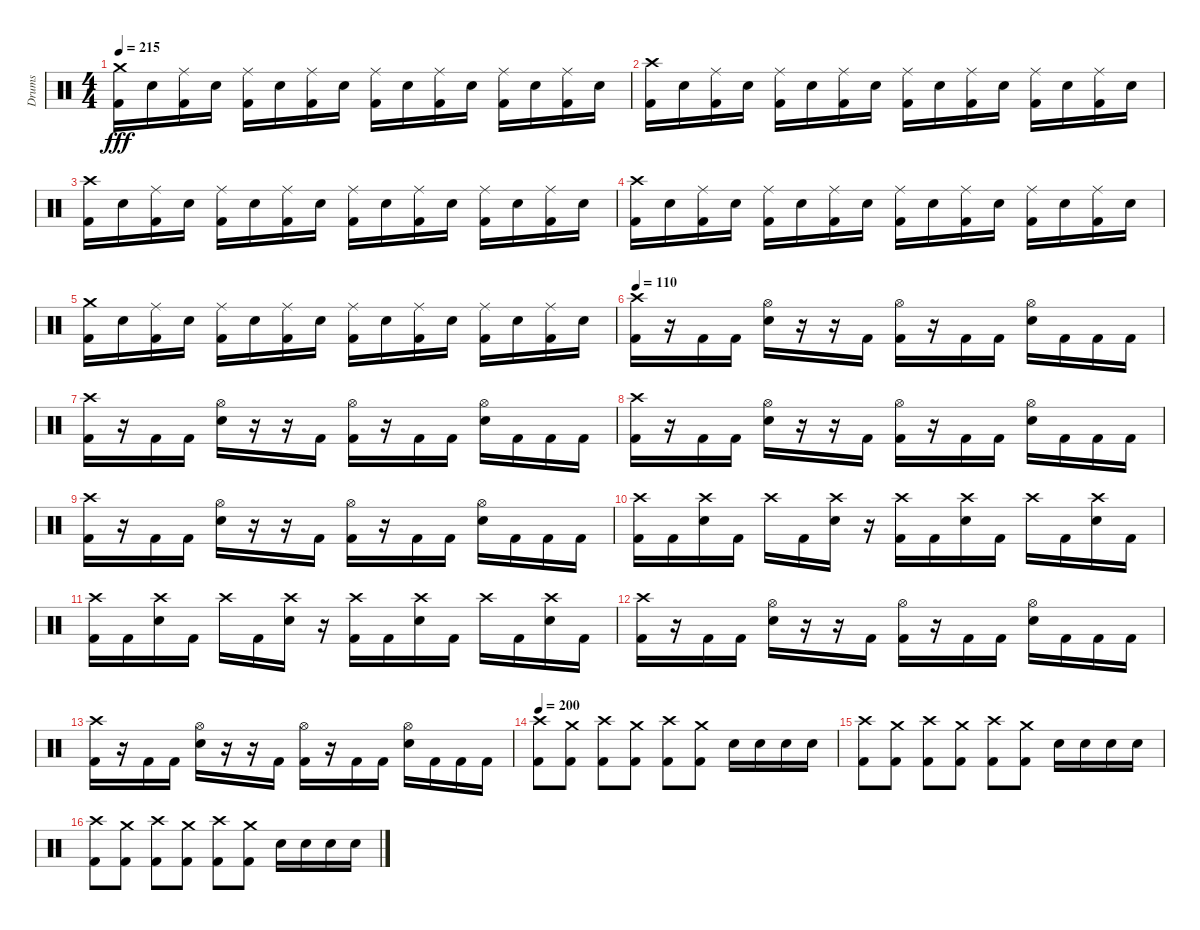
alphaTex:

\track ("Drums" "Drums") {instrument percussion}
\staff {score}
\articulation defaults
\ts (4 4)
\tempo 215
\clef neutral
\ks c
("Crash medium (hit)" "Kick (hit) 2").16{dy fff} "Electric Snare (hit)".16 ("Ride (middle)" "Kick (hit) 2").16 "Electric Snare (hit)".16 ("Ride (middle)" "Kick (hit) 2").16 "Electric Snare (hit)".16 ("Ride (middle)" "Kick (hit) 2").16 "Electric Snare (hit)".16 ("Ride (middle)" "Kick (hit) 2").16 "Electric Snare (hit)".16 ("Ride (middle)" "Kick (hit) 2").16 "Electric Snare (hit)".16 ("Ride (middle)" "Kick (hit) 2").16 "Electric Snare (hit)".16 ("Ride (middle)" "Kick (hit) 2").16 "Electric Snare (hit)".16 |
("Crash high (hit)" "Kick (hit) 2").16 "Electric Snare (hit)".16 ("Ride (middle)" "Kick (hit) 2").16 "Electric Snare (hit)".16 ("Ride (middle)" "Kick (hit) 2").16 "Electric Snare (hit)".16 ("Ride (middle)" "Kick (hit) 2").16 "Electric Snare (hit)".16 ("Ride (middle)" "Kick (hit) 2").16 "Electric Snare (hit)".16 ("Ride (middle)" "Kick (hit) 2").16 "Electric Snare (hit)".16 ("Ride (middle)" "Kick (hit) 2").16 "Electric Snare (hit)".16 ("Ride (middle)" "Kick (hit) 2").16 "Electric Snare (hit)".16 |
("Crash high (hit)" "Kick (hit) 2").16 "Electric Snare (hit)".16 ("Ride (middle)" "Kick (hit) 2").16 "Electric Snare (hit)".16 ("Ride (middle)" "Kick (hit) 2").16 "Electric Snare (hit)".16 ("Ride (middle)" "Kick (hit) 2").16 "Electric Snare (hit)".16 ("Ride (middle)" "Kick (hit) 2").16 "Electric Snare (hit)".16 ("Ride (middle)" "Kick (hit) 2").16 "Electric Snare (hit)".16 ("Ride (middle)" "Kick (hit) 2").16 "Electric Snare (hit)".16 ("Ride (middle)" "Kick (hit) 2").16 "Electric Snare (hit)".16 |
("Crash high (hit)" "Kick (hit) 2").16 "Electric Snare (hit)".16 ("Ride (middle)" "Kick (hit) 2").16 "Electric Snare (hit)".16 ("Ride (middle)" "Kick (hit) 2").16 "Electric Snare (hit)".16 ("Ride (middle)" "Kick (hit) 2").16 "Electric Snare (hit)".16 ("Ride (middle)" "Kick (hit) 2").16 "Electric Snare (hit)".16 ("Ride (middle)" "Kick (hit) 2").16 "Electric Snare (hit)".16 ("Ride (middle)" "Kick (hit) 2").16 "Electric Snare (hit)".16 ("Ride (middle)" "Kick (hit) 2").16 "Electric Snare (hit)".16 |
("Crash medium (hit)" "Kick (hit) 2").16 "Electric Snare (hit)".16 ("Ride (middle)" "Kick (hit) 2").16 "Electric Snare (hit)".16 ("Ride (middle)" "Kick (hit) 2").16 "Electric Snare (hit)".16 ("Ride (middle)" "Kick (hit) 2").16 "Electric Snare (hit)".16 ("Ride (middle)" "Kick (hit) 2").16 "Electric Snare (hit)".16 ("Ride (middle)" "Kick (hit) 2").16 "Electric Snare (hit)".16 ("Ride (middle)" "Kick (hit) 2").16 "Electric Snare (hit)".16 ("Ride (middle)" "Kick (hit) 2").16 "Electric Snare (hit)".16 |
\tempo 115
\tempo 110
("Crash high (hit)" "Kick (hit) 2").16 r.16 "Kick (hit) 2".16 "Kick (hit) 2".16 ("Hi-Hat (open)" "Electric Snare (hit)").16 r.16 r.16 "Kick (hit) 2".16 ("Hi-Hat (open)" "Kick (hit) 2").16 r.16 "Kick (hit) 2".16 "Kick (hit) 2".16 ("Hi-Hat (open)" "Electric Snare (hit)").16 "Kick (hit) 2".16 "Kick (hit) 2".16 "Kick (hit) 2".16 |
("Crash high (hit)" "Kick (hit) 2").16 r.16 "Kick (hit) 2".16 "Kick (hit) 2".16 ("Hi-Hat (open)" "Electric Snare (hit)").16 r.16 r.16 "Kick (hit) 2".16 ("Hi-Hat (open)" "Kick (hit) 2").16 r.16 "Kick (hit) 2".16 "Kick (hit) 2".16 ("Hi-Hat (open)" "Electric Snare (hit)").16 "Kick (hit) 2".16 "Kick (hit) 2".16 "Kick (hit) 2".16 |
("Crash high (hit)" "Kick (hit) 2").16 r.16 "Kick (hit) 2".16 "Kick (hit) 2".16 ("Hi-Hat (open)" "Electric Snare (hit)").16 r.16 r.16 "Kick (hit) 2".16 ("Hi-Hat (open)" "Kick (hit) 2").16 r.16 "Kick (hit) 2".16 "Kick (hit) 2".16 ("Hi-Hat (open)" "Electric Snare (hit)").16 "Kick (hit) 2".16 "Kick (hit) 2".16 "Kick (hit) 2".16 |
("Crash high (hit)" "Kick (hit) 2").16 r.16 "Kick (hit) 2".16 "Kick (hit) 2".16 ("Hi-Hat (open)" "Electric Snare (hit)").16 r.16 r.16 "Kick (hit) 2".16 ("Hi-Hat (open)" "Kick (hit) 2").16 r.16 "Kick (hit) 2".16 "Kick (hit) 2".16 ("Hi-Hat (open)" "Electric Snare (hit)").16 "Kick (hit) 2".16 "Kick (hit) 2".16 "Kick (hit) 2".16 |
("Crash high (hit)" "Kick (hit) 2").16 "Kick (hit) 2".16 ("Crash high (hit)" "Electric Snare (hit)").16 "Kick (hit) 2".16 "Crash high (hit)".16 "Kick (hit) 2".16 ("Crash high (hit)" "Electric Snare (hit)").16 r.16 ("Crash high (hit)" "Kick (hit) 2").16 "Kick (hit) 2".16 ("Crash high (hit)" "Electric Snare (hit)").16 "Kick (hit) 2".16 "Crash high (hit)".16 "Kick (hit) 2".16 ("Crash high (hit)" "Electric Snare (hit)").16 "Kick (hit) 2".16 |
("Crash high (hit)" "Kick (hit) 2").16 "Kick (hit) 2".16 ("Crash high (hit)" "Electric Snare (hit)").16 "Kick (hit) 2".16 "Crash high (hit)".16 "Kick (hit) 2".16 ("Crash high (hit)" "Electric Snare (hit)").16 r.16 ("Crash high (hit)" "Kick (hit) 2").16 "Kick (hit) 2".16 ("Crash high (hit)" "Electric Snare (hit)").16 "Kick (hit) 2".16 "Crash high (hit)".16 "Kick (hit) 2".16 ("Crash high (hit)" "Electric Snare (hit)").16 "Kick (hit) 2".16 |
("Crash high (hit)" "Kick (hit) 2").16 r.16 "Kick (hit) 2".16 "Kick (hit) 2".16 ("Hi-Hat (open)" "Electric Snare (hit)").16 r.16 r.16 "Kick (hit) 2".16 ("Hi-Hat (open)" "Kick (hit) 2").16 r.16 "Kick (hit) 2".16 "Kick (hit) 2".16 ("Hi-Hat (open)" "Electric Snare (hit)").16 "Kick (hit) 2".16 "Kick (hit) 2".16 "Kick (hit) 2".16 |
("Crash high (hit)" "Kick (hit) 2").16 r.16 "Kick (hit) 2".16 "Kick (hit) 2".16 ("Hi-Hat (open)" "Electric Snare (hit)").16 r.16 r.16 "Kick (hit) 2".16 ("Hi-Hat (open)" "Kick (hit) 2").16 r.16 "Kick (hit) 2".16 "Kick (hit) 2".16 ("Hi-Hat (open)" "Electric Snare (hit)").16 "Kick (hit) 2".16 "Kick (hit) 2".16 "Kick (hit) 2".16 |
\tempo 210
\tempo 200
("Crash high (hit)" "Kick (hit) 2").8 ("Crash medium (hit)" "Kick (hit) 2").8 ("Crash high (hit)" "Kick (hit) 2").8 ("Crash medium (hit)" "Kick (hit) 2").8 ("Crash high (hit)" "Kick (hit) 2").8 ("Crash medium (hit)" "Kick (hit) 2").8 "Electric Snare (hit)".16 "Electric Snare (hit)".16 "Electric Snare (hit)".16 "Electric Snare (hit)".16 |
("Crash high (hit)" "Kick (hit) 2").8 ("Crash medium (hit)" "Kick (hit) 2").8 ("Crash high (hit)" "Kick (hit) 2").8 ("Crash medium (hit)" "Kick (hit) 2").8 ("Crash high (hit)" "Kick (hit) 2").8 ("Crash medium (hit)" "Kick (hit) 2").8 "Electric Snare (hit)".16 "Electric Snare (hit)".16 "Electric Snare (hit)".16 "Electric Snare (hit)".16 |
("Crash high (hit)" "Kick (hit) 2").8 ("Crash medium (hit)" "Kick (hit) 2").8 ("Crash high (hit)" "Kick (hit) 2").8 ("Crash medium (hit)" "Kick (hit) 2").8 ("Crash high (hit)" "Kick (hit) 2").8 ("Crash medium (hit)" "Kick (hit) 2").8 "Electric Snare (hit)".16 "Electric Snare (hit)".16 "Electric Snare (hit)".16 "Electric Snare (hit)".16
